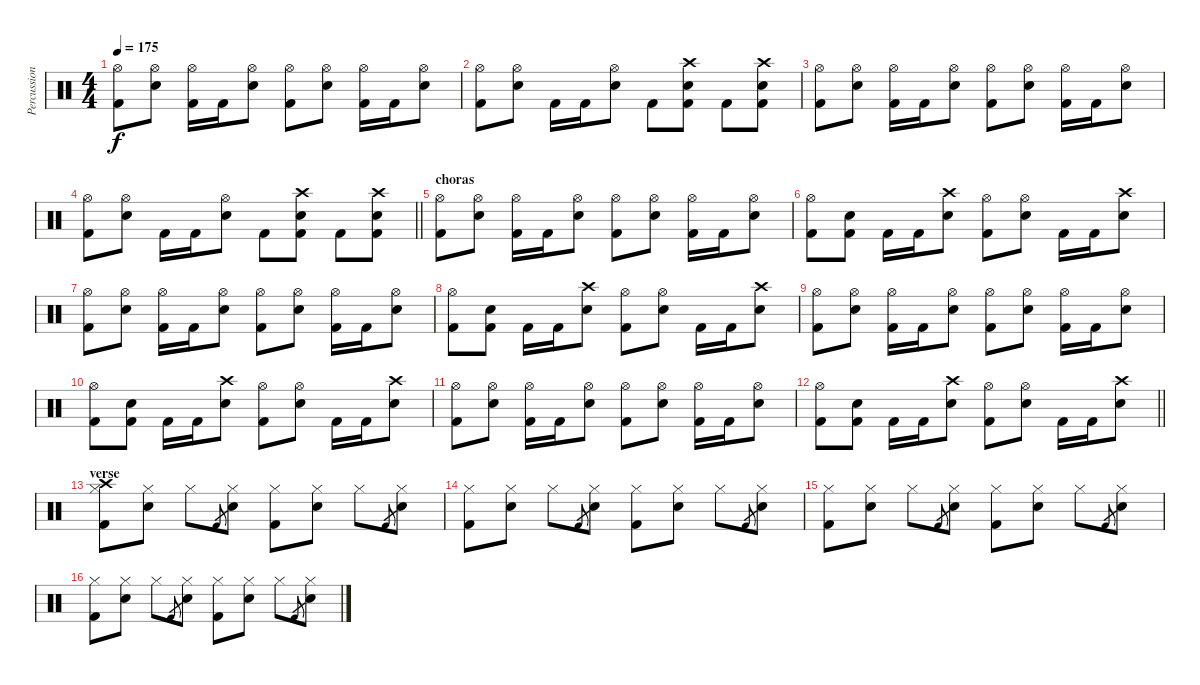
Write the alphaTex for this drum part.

\track ("Percussion" "Percussion") {instrument percussion}
\staff {score}
\articulation defaults
\ts (4 4)
\tempo 175
\clef neutral
\ks c
("Hi-Hat (open)" "Kick (hit) 2").8{dy f} ("Hi-Hat (open)" "Electric Snare (hit)").8 ("Hi-Hat (open)" "Kick (hit) 2").16 "Kick (hit) 2".16 ("Hi-Hat (open)" "Electric Snare (hit)").8 ("Hi-Hat (open)" "Kick (hit) 2").8 ("Hi-Hat (open)" "Electric Snare (hit)").8 ("Hi-Hat (open)" "Kick (hit) 2").16 "Kick (hit) 2".16 ("Hi-Hat (open)" "Electric Snare (hit)").8 |
("Hi-Hat (open)" "Kick (hit) 2").8 ("Hi-Hat (open)" "Electric Snare (hit)").8 "Kick (hit) 2".16 "Kick (hit) 2".16 ("Hi-Hat (open)" "Electric Snare (hit)").8 "Kick (hit) 2".8 ("Crash high (hit)" "Electric Snare (hit)" "Kick (hit) 2").8 "Kick (hit) 2".8 ("Crash high (hit)" "Electric Snare (hit)" "Kick (hit) 2").8 |
("Hi-Hat (open)" "Kick (hit) 2").8 ("Hi-Hat (open)" "Electric Snare (hit)").8 ("Hi-Hat (open)" "Kick (hit) 2").16 "Kick (hit) 2".16 ("Hi-Hat (open)" "Electric Snare (hit)").8 ("Hi-Hat (open)" "Kick (hit) 2").8 ("Hi-Hat (open)" "Electric Snare (hit)").8 ("Hi-Hat (open)" "Kick (hit) 2").16 "Kick (hit) 2".16 ("Hi-Hat (open)" "Electric Snare (hit)").8 |
\barLineRight lightlight
("Hi-Hat (open)" "Kick (hit) 2").8 ("Hi-Hat (open)" "Electric Snare (hit)").8 "Kick (hit) 2".16 "Kick (hit) 2".16 ("Hi-Hat (open)" "Electric Snare (hit)").8 "Kick (hit) 2".8 ("Crash high (hit)" "Electric Snare (hit)" "Kick (hit) 2").8 "Kick (hit) 2".8 ("Crash high (hit)" "Electric Snare (hit)" "Kick (hit) 2").8 |
\section ("" "choras")
("Hi-Hat (open)" "Kick (hit) 2").8 ("Hi-Hat (open)" "Electric Snare (hit)").8 ("Hi-Hat (open)" "Kick (hit) 2").16 "Kick (hit) 2".16 ("Hi-Hat (open)" "Electric Snare (hit)").8 ("Hi-Hat (open)" "Kick (hit) 2").8 ("Hi-Hat (open)" "Electric Snare (hit)").8 ("Hi-Hat (open)" "Kick (hit) 2").16 "Kick (hit) 2".16 ("Hi-Hat (open)" "Electric Snare (hit)").8 |
("Hi-Hat (open)" "Kick (hit) 2").8 ("Kick (hit) 2" "Electric Snare (hit)").8 "Kick (hit) 2".16 "Kick (hit) 2".16 ("Crash high (hit)" "Electric Snare (hit)").8 ("Hi-Hat (open)" "Kick (hit) 2").8 ("Hi-Hat (open)" "Electric Snare (hit)").8 "Kick (hit) 2".16 "Kick (hit) 2".16 ("Crash high (hit)" "Electric Snare (hit)").8 |
("Hi-Hat (open)" "Kick (hit) 2").8 ("Hi-Hat (open)" "Electric Snare (hit)").8 ("Hi-Hat (open)" "Kick (hit) 2").16 "Kick (hit) 2".16 ("Hi-Hat (open)" "Electric Snare (hit)").8 ("Hi-Hat (open)" "Kick (hit) 2").8 ("Hi-Hat (open)" "Electric Snare (hit)").8 ("Hi-Hat (open)" "Kick (hit) 2").16 "Kick (hit) 2".16 ("Hi-Hat (open)" "Electric Snare (hit)").8 |
("Hi-Hat (open)" "Kick (hit) 2").8 ("Kick (hit) 2" "Electric Snare (hit)").8 "Kick (hit) 2".16 "Kick (hit) 2".16 ("Crash high (hit)" "Electric Snare (hit)").8 ("Hi-Hat (open)" "Kick (hit) 2").8 ("Hi-Hat (open)" "Electric Snare (hit)").8 "Kick (hit) 2".16 "Kick (hit) 2".16 ("Crash high (hit)" "Electric Snare (hit)").8 |
("Hi-Hat (open)" "Kick (hit) 2").8 ("Hi-Hat (open)" "Electric Snare (hit)").8 ("Hi-Hat (open)" "Kick (hit) 2").16 "Kick (hit) 2".16 ("Hi-Hat (open)" "Electric Snare (hit)").8 ("Hi-Hat (open)" "Kick (hit) 2").8 ("Hi-Hat (open)" "Electric Snare (hit)").8 ("Hi-Hat (open)" "Kick (hit) 2").16 "Kick (hit) 2".16 ("Hi-Hat (open)" "Electric Snare (hit)").8 |
("Hi-Hat (open)" "Kick (hit) 2").8 ("Kick (hit) 2" "Electric Snare (hit)").8 "Kick (hit) 2".16 "Kick (hit) 2".16 ("Crash high (hit)" "Electric Snare (hit)").8 ("Hi-Hat (open)" "Kick (hit) 2").8 ("Hi-Hat (open)" "Electric Snare (hit)").8 "Kick (hit) 2".16 "Kick (hit) 2".16 ("Crash high (hit)" "Electric Snare (hit)").8 |
("Hi-Hat (open)" "Kick (hit) 2").8 ("Hi-Hat (open)" "Electric Snare (hit)").8 ("Hi-Hat (open)" "Kick (hit) 2").16 "Kick (hit) 2".16 ("Hi-Hat (open)" "Electric Snare (hit)").8 ("Hi-Hat (open)" "Kick (hit) 2").8 ("Hi-Hat (open)" "Electric Snare (hit)").8 ("Hi-Hat (open)" "Kick (hit) 2").16 "Kick (hit) 2".16 ("Hi-Hat (open)" "Electric Snare (hit)").8 |
\barLineRight lightlight
("Hi-Hat (open)" "Kick (hit) 2").8 ("Kick (hit) 2" "Electric Snare (hit)").8 "Kick (hit) 2".16 "Kick (hit) 2".16 ("Crash high (hit)" "Electric Snare (hit)").8 ("Hi-Hat (open)" "Kick (hit) 2").8 ("Hi-Hat (open)" "Electric Snare (hit)").8 "Kick (hit) 2".16 "Kick (hit) 2".16 ("Crash high (hit)" "Electric Snare (hit)").8 |
\section ("" "verse")
("Crash high (hit)" "Hi-Hat (closed)" "Kick (hit) 2").8 ("Hi-Hat (closed)" "Electric Snare (hit)").8 "Hi-Hat (closed)".8 "Kick (hit) 2".8{gr} ("Hi-Hat (closed)" "Electric Snare (hit)").8 ("Hi-Hat (closed)" "Kick (hit) 2").8 ("Hi-Hat (closed)" "Electric Snare (hit)").8 "Hi-Hat (closed)".8 "Kick (hit) 2".8{gr} ("Hi-Hat (closed)" "Electric Snare (hit)").8 |
("Hi-Hat (closed)" "Kick (hit) 2").8 ("Hi-Hat (closed)" "Electric Snare (hit)").8 "Hi-Hat (closed)".8 "Kick (hit) 2".8{gr} ("Hi-Hat (closed)" "Electric Snare (hit)").8 ("Hi-Hat (closed)" "Kick (hit) 2").8 ("Hi-Hat (closed)" "Electric Snare (hit)").8 "Hi-Hat (closed)".8 "Kick (hit) 2".8{gr} ("Hi-Hat (closed)" "Electric Snare (hit)").8 |
("Hi-Hat (closed)" "Kick (hit) 2").8 ("Hi-Hat (closed)" "Electric Snare (hit)").8 "Hi-Hat (closed)".8 "Kick (hit) 2".8{gr} ("Hi-Hat (closed)" "Electric Snare (hit)").8 ("Hi-Hat (closed)" "Kick (hit) 2").8 ("Hi-Hat (closed)" "Electric Snare (hit)").8 "Hi-Hat (closed)".8 "Kick (hit) 2".8{gr} ("Hi-Hat (closed)" "Electric Snare (hit)").8 |
("Hi-Hat (closed)" "Kick (hit) 2").8 ("Hi-Hat (closed)" "Electric Snare (hit)").8 "Hi-Hat (closed)".8 "Kick (hit) 2".8{gr} ("Hi-Hat (closed)" "Electric Snare (hit)").8 ("Hi-Hat (closed)" "Kick (hit) 2").8 ("Hi-Hat (closed)" "Electric Snare (hit)").8 "Hi-Hat (closed)".8 "Kick (hit) 2".8{gr} ("Hi-Hat (closed)" "Electric Snare (hit)").8
